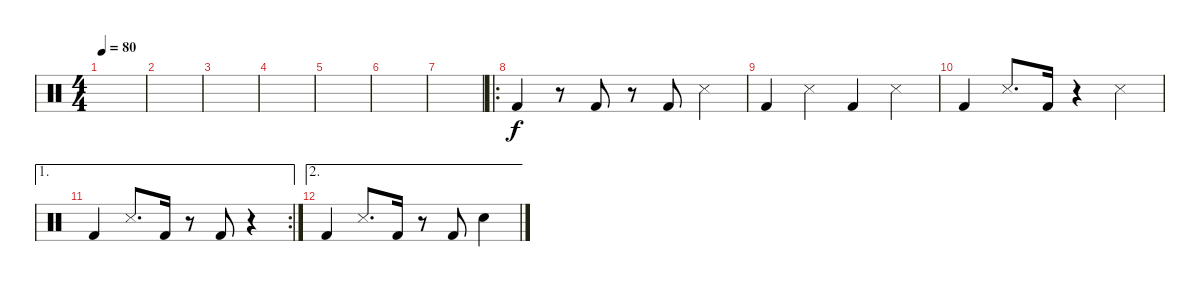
\track "" {instrument percussion}
\staff {score}
\articulation defaults
\ts (4 4)
\tempo 80
\clef neutral
\ks c
|
|
|
|
|
|
|
\ro "Kick (hit) 2".4
r.8 "Kick (hit) 2".8 r.8 "Kick (hit) 2".8 "Metronome (hit)".4 |
"Kick (hit) 2".4 "Metronome (hit)".4 "Kick (hit) 2".4 "Metronome (hit)".4 |
"Kick (hit) 2".4 "Metronome (hit)".8{d} "Kick (hit) 2".16 r.4 "Metronome (hit)".4 |
\ae 1
\rc 2 "Kick (hit) 2".4 "Metronome (hit)".8{d} "Kick (hit) 2".16
r.8 "Kick (hit) 2".8 r.4 |
\ae 2 "Kick (hit) 2".4 "Metronome (hit)".8{d} "Kick (hit) 2".16
r.8 "Kick (hit) 2".8 "Electric Snare (hit)".4
